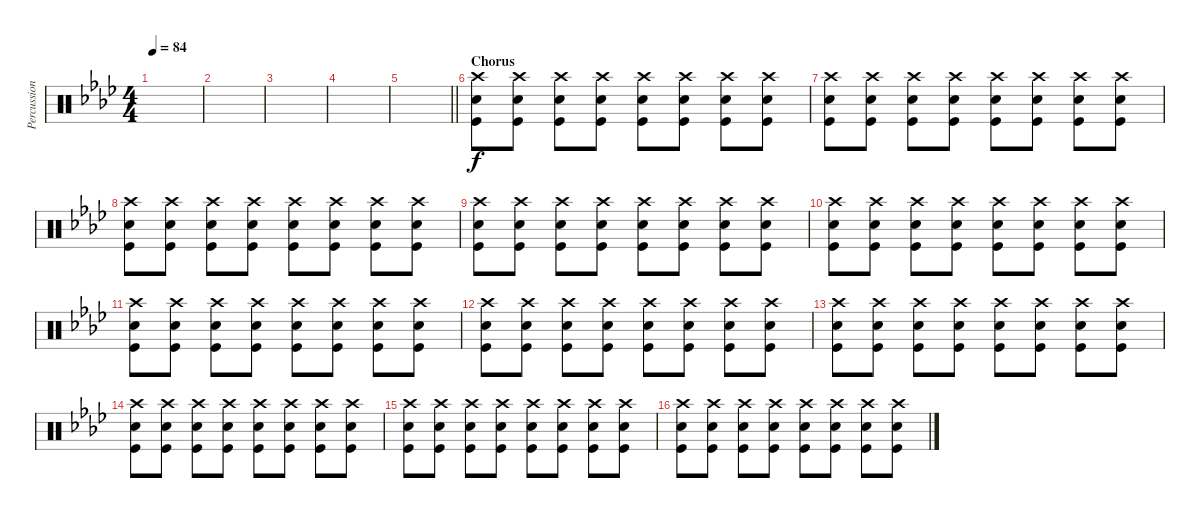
\track ("Percussion" "Percussion") {instrument percussion}
\staff {score}
\articulation defaults
\ts (4 4)
\tempo 84
\clef neutral
\ks ab
|
|
|
|
\barLineRight lightlight
|
\section ("" "Chorus")
("Snare (hit) 2" "Kick (hit)" "Crash high (hit)").8 ("Snare (hit) 2" "Kick (hit)" "Crash high (hit)").8 ("Snare (hit) 2" "Kick (hit)" "Crash high (hit)").8 ("Snare (hit) 2" "Kick (hit)" "Crash high (hit)").8 ("Snare (hit) 2" "Kick (hit)" "Crash high (hit)").8 ("Snare (hit) 2" "Kick (hit)" "Crash high (hit)").8 ("Snare (hit) 2" "Kick (hit)" "Crash high (hit)").8 ("Snare (hit) 2" "Kick (hit)" "Crash high (hit)").8 |
("Snare (hit) 2" "Kick (hit)" "Crash high (hit)").8 ("Snare (hit) 2" "Kick (hit)" "Crash high (hit)").8 ("Snare (hit) 2" "Kick (hit)" "Crash high (hit)").8 ("Snare (hit) 2" "Kick (hit)" "Crash high (hit)").8 ("Snare (hit) 2" "Kick (hit)" "Crash high (hit)").8 ("Snare (hit) 2" "Kick (hit)" "Crash high (hit)").8 ("Snare (hit) 2" "Kick (hit)" "Crash high (hit)").8 ("Snare (hit) 2" "Kick (hit)" "Crash high (hit)").8 |
("Snare (hit) 2" "Kick (hit)" "Crash high (hit)").8 ("Snare (hit) 2" "Kick (hit)" "Crash high (hit)").8 ("Snare (hit) 2" "Kick (hit)" "Crash high (hit)").8 ("Snare (hit) 2" "Kick (hit)" "Crash high (hit)").8 ("Snare (hit) 2" "Kick (hit)" "Crash high (hit)").8 ("Snare (hit) 2" "Kick (hit)" "Crash high (hit)").8 ("Snare (hit) 2" "Kick (hit)" "Crash high (hit)").8 ("Snare (hit) 2" "Kick (hit)" "Crash high (hit)").8 |
("Snare (hit) 2" "Kick (hit)" "Crash high (hit)").8 ("Snare (hit) 2" "Kick (hit)" "Crash high (hit)").8 ("Snare (hit) 2" "Kick (hit)" "Crash high (hit)").8 ("Snare (hit) 2" "Kick (hit)" "Crash high (hit)").8 ("Snare (hit) 2" "Kick (hit)" "Crash high (hit)").8 ("Snare (hit) 2" "Kick (hit)" "Crash high (hit)").8 ("Snare (hit) 2" "Kick (hit)" "Crash high (hit)").8 ("Snare (hit) 2" "Kick (hit)" "Crash high (hit)").8 |
("Snare (hit) 2" "Kick (hit)" "Crash high (hit)").8 ("Snare (hit) 2" "Kick (hit)" "Crash high (hit)").8 ("Snare (hit) 2" "Kick (hit)" "Crash high (hit)").8 ("Snare (hit) 2" "Kick (hit)" "Crash high (hit)").8 ("Snare (hit) 2" "Kick (hit)" "Crash high (hit)").8 ("Snare (hit) 2" "Kick (hit)" "Crash high (hit)").8 ("Snare (hit) 2" "Kick (hit)" "Crash high (hit)").8 ("Snare (hit) 2" "Kick (hit)" "Crash high (hit)").8 |
("Snare (hit) 2" "Kick (hit)" "Crash high (hit)").8 ("Snare (hit) 2" "Kick (hit)" "Crash high (hit)").8 ("Snare (hit) 2" "Kick (hit)" "Crash high (hit)").8 ("Snare (hit) 2" "Kick (hit)" "Crash high (hit)").8 ("Snare (hit) 2" "Kick (hit)" "Crash high (hit)").8 ("Snare (hit) 2" "Kick (hit)" "Crash high (hit)").8 ("Snare (hit) 2" "Kick (hit)" "Crash high (hit)").8 ("Snare (hit) 2" "Kick (hit)" "Crash high (hit)").8 |
("Snare (hit) 2" "Kick (hit)" "Crash high (hit)").8 ("Snare (hit) 2" "Kick (hit)" "Crash high (hit)").8 ("Snare (hit) 2" "Kick (hit)" "Crash high (hit)").8 ("Snare (hit) 2" "Kick (hit)" "Crash high (hit)").8 ("Snare (hit) 2" "Kick (hit)" "Crash high (hit)").8 ("Snare (hit) 2" "Kick (hit)" "Crash high (hit)").8 ("Snare (hit) 2" "Kick (hit)" "Crash high (hit)").8 ("Snare (hit) 2" "Kick (hit)" "Crash high (hit)").8 |
("Snare (hit) 2" "Kick (hit)" "Crash high (hit)").8 ("Snare (hit) 2" "Kick (hit)" "Crash high (hit)").8 ("Snare (hit) 2" "Kick (hit)" "Crash high (hit)").8 ("Snare (hit) 2" "Kick (hit)" "Crash high (hit)").8 ("Snare (hit) 2" "Kick (hit)" "Crash high (hit)").8 ("Snare (hit) 2" "Kick (hit)" "Crash high (hit)").8 ("Snare (hit) 2" "Kick (hit)" "Crash high (hit)").8 ("Snare (hit) 2" "Kick (hit)" "Crash high (hit)").8 |
("Snare (hit) 2" "Kick (hit)" "Crash high (hit)").8 ("Snare (hit) 2" "Kick (hit)" "Crash high (hit)").8 ("Snare (hit) 2" "Kick (hit)" "Crash high (hit)").8 ("Snare (hit) 2" "Kick (hit)" "Crash high (hit)").8 ("Snare (hit) 2" "Kick (hit)" "Crash high (hit)").8 ("Snare (hit) 2" "Kick (hit)" "Crash high (hit)").8 ("Snare (hit) 2" "Kick (hit)" "Crash high (hit)").8 ("Snare (hit) 2" "Kick (hit)" "Crash high (hit)").8 |
("Snare (hit) 2" "Kick (hit)" "Crash high (hit)").8 ("Snare (hit) 2" "Kick (hit)" "Crash high (hit)").8 ("Snare (hit) 2" "Kick (hit)" "Crash high (hit)").8 ("Snare (hit) 2" "Kick (hit)" "Crash high (hit)").8 ("Snare (hit) 2" "Kick (hit)" "Crash high (hit)").8 ("Snare (hit) 2" "Kick (hit)" "Crash high (hit)").8 ("Snare (hit) 2" "Kick (hit)" "Crash high (hit)").8 ("Snare (hit) 2" "Kick (hit)" "Crash high (hit)").8 |
("Snare (hit) 2" "Kick (hit)" "Crash high (hit)").8 ("Snare (hit) 2" "Kick (hit)" "Crash high (hit)").8 ("Snare (hit) 2" "Kick (hit)" "Crash high (hit)").8 ("Snare (hit) 2" "Kick (hit)" "Crash high (hit)").8 ("Snare (hit) 2" "Kick (hit)" "Crash high (hit)").8 ("Snare (hit) 2" "Kick (hit)" "Crash high (hit)").8 ("Snare (hit) 2" "Kick (hit)" "Crash high (hit)").8 ("Snare (hit) 2" "Kick (hit)" "Crash high (hit)").8
